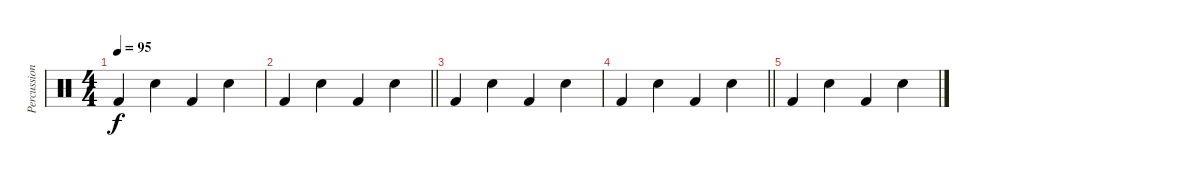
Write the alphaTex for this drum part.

\track ("Percussion" "Percussion") {instrument percussion}
\staff {score}
\articulation defaults
\ts (4 4)
\tempo 95
\clef neutral
\ks c "Kick (hit) 2".4{dy f} "Snare (hit) 2".4 "Kick (hit) 2".4 "Snare (hit) 2".4
|
\barLineRight lightlight "Kick (hit) 2".4 "Snare (hit) 2".4 "Kick (hit) 2".4 "Snare (hit) 2".4
|
"Kick (hit) 2".4 "Snare (hit) 2".4 "Kick (hit) 2".4 "Snare (hit) 2".4 |
\barLineRight lightlight "Kick (hit) 2".4 "Snare (hit) 2".4 "Kick (hit) 2".4 "Snare (hit) 2".4
|
"Kick (hit) 2".4 "Snare (hit) 2".4 "Kick (hit) 2".4 "Snare (hit) 2".4
